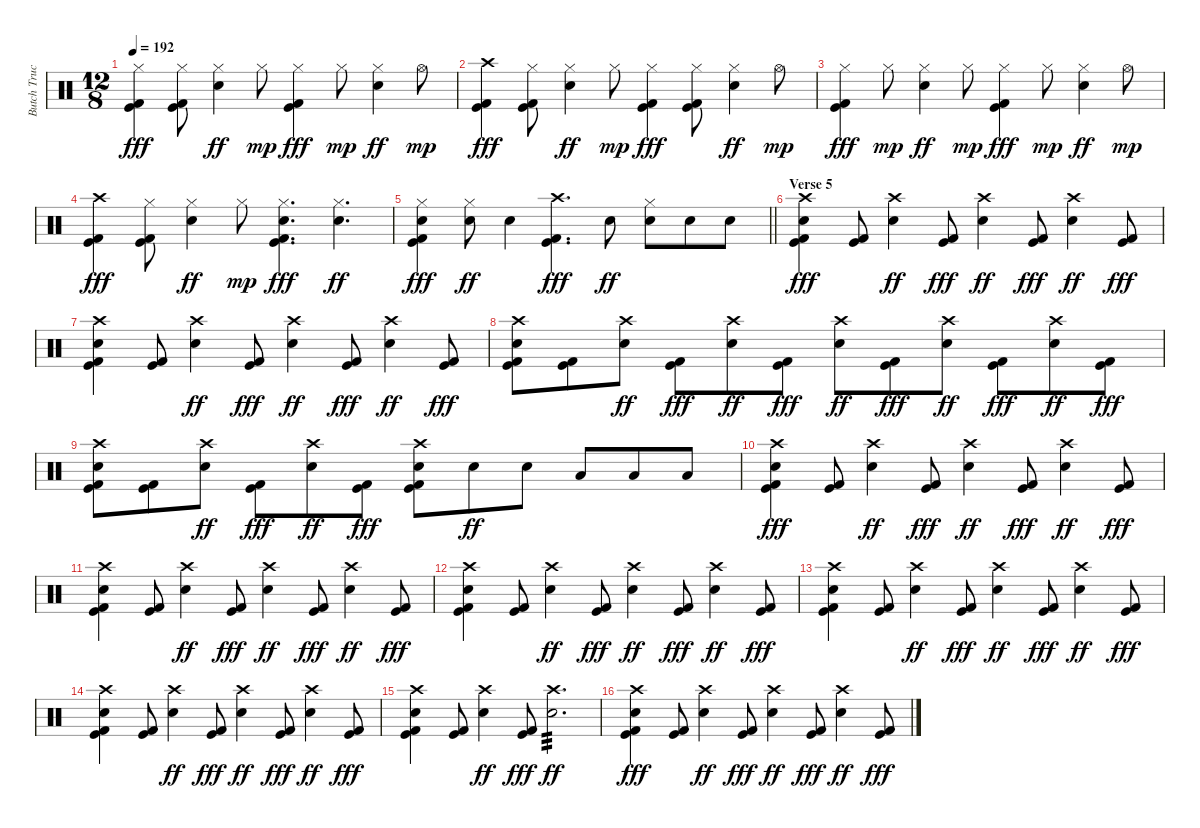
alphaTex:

\track ("Butch Trucks, Jaimoe - Drums" "Butch Truc") {instrument percussion}
\staff {score}
\articulation defaults
\ts (12 8)
\tempo 192
\clef neutral
\ks c
("Hi-Hat (closed)" "Kick (hit)" "Kick (hit) 2").4{dy fff} ("Hi-Hat (closed)" "Kick (hit)" "Kick (hit) 2").8 ("Hi-Hat (closed)" "Snare (hit) 2").4{dy ff} "Hi-Hat (closed)".8{dy mp} ("Hi-Hat (closed)" "Kick (hit)" "Kick (hit) 2").4{dy fff} "Hi-Hat (closed)".8{dy mp} ("Hi-Hat (closed)" "Snare (hit) 2").4{dy ff} "Hi-Hat (open)".8{dy mp} |
("Crash high (hit)" "Kick (hit)" "Kick (hit) 2").4{dy fff} ("Hi-Hat (closed)" "Kick (hit)" "Kick (hit) 2").8 ("Hi-Hat (closed)" "Snare (hit) 2").4{dy ff} "Hi-Hat (closed)".8{dy mp} ("Hi-Hat (closed)" "Kick (hit)" "Kick (hit) 2").4{dy fff} ("Hi-Hat (closed)" "Kick (hit)" "Kick (hit) 2").8 ("Hi-Hat (closed)" "Snare (hit) 2").4{dy ff} "Hi-Hat (open)".8{dy mp} |
("Hi-Hat (closed)" "Kick (hit)" "Kick (hit) 2").4{dy fff} "Hi-Hat (closed)".8{dy mp} ("Hi-Hat (closed)" "Snare (hit) 2").4{dy ff} "Hi-Hat (closed)".8{dy mp} ("Hi-Hat (closed)" "Kick (hit)" "Kick (hit) 2").4{dy fff} "Hi-Hat (closed)".8{dy mp} ("Hi-Hat (closed)" "Snare (hit) 2").4{dy ff} "Hi-Hat (open)".8{dy mp} |
("Crash high (hit)" "Kick (hit)" "Kick (hit) 2").4{dy fff} ("Hi-Hat (closed)" "Kick (hit)" "Kick (hit) 2").8 ("Hi-Hat (closed)" "Snare (hit) 2").4{dy ff} "Hi-Hat (closed)".8{dy mp} ("Hi-Hat (closed)" "Snare (hit) 2" "Kick (hit)" "Kick (hit) 2").4{d dy fff} ("Hi-Hat (closed)" "Snare (hit) 2").4{d dy ff} |
\barLineRight lightlight
("Hi-Hat (closed)" "Snare (hit) 2" "Kick (hit)" "Kick (hit) 2").4{dy fff} ("Hi-Hat (closed)" "Snare (hit) 2").8{dy ff} "Snare (hit) 2".4 ("Crash high (hit)" "Kick (hit)" "Kick (hit) 2").4{d dy fff} "Snare (hit) 2".8{dy ff} ("Hi-Hat (closed)" "Snare (hit) 2").8 "Snare (hit) 2".8 "Snare (hit) 2".8 |
\section ("" "Verse 5")
("Crash high (hit)" "Snare (hit) 2" "Kick (hit)" "Kick (hit) 2").4{dy fff} ("Kick (hit)" "Kick (hit) 2").8 ("Crash high (hit)" "Snare (hit) 2").4{dy ff} ("Kick (hit)" "Kick (hit) 2").8{dy fff} ("Crash high (hit)" "Snare (hit) 2").4{dy ff} ("Kick (hit)" "Kick (hit) 2").8{dy fff} ("Crash high (hit)" "Snare (hit) 2").4{dy ff} ("Kick (hit)" "Kick (hit) 2").8{dy fff} |
("Crash high (hit)" "Snare (hit) 2" "Kick (hit)" "Kick (hit) 2").4 ("Kick (hit)" "Kick (hit) 2").8 ("Crash high (hit)" "Snare (hit) 2").4{dy ff} ("Kick (hit)" "Kick (hit) 2").8{dy fff} ("Crash high (hit)" "Snare (hit) 2").4{dy ff} ("Kick (hit)" "Kick (hit) 2").8{dy fff} ("Crash high (hit)" "Snare (hit) 2").4{dy ff} ("Kick (hit)" "Kick (hit) 2").8{dy fff} |
("Crash high (hit)" "Snare (hit) 2" "Kick (hit)" "Kick (hit) 2").8 ("Kick (hit)" "Kick (hit) 2").8 ("Crash high (hit)" "Snare (hit) 2").8{dy ff} ("Kick (hit)" "Kick (hit) 2").8{dy fff} ("Crash high (hit)" "Snare (hit) 2").8{dy ff} ("Kick (hit)" "Kick (hit) 2").8{dy fff} ("Crash high (hit)" "Snare (hit) 2").8{dy ff} ("Kick (hit)" "Kick (hit) 2").8{dy fff} ("Crash high (hit)" "Snare (hit) 2").8{dy ff} ("Kick (hit)" "Kick (hit) 2").8{dy fff} ("Crash high (hit)" "Snare (hit) 2").8{dy ff} ("Kick (hit)" "Kick (hit) 2").8{dy fff} |
("Crash high (hit)" "Snare (hit) 2" "Kick (hit)" "Kick (hit) 2").8 ("Kick (hit)" "Kick (hit) 2").8 ("Crash high (hit)" "Snare (hit) 2").8{dy ff} ("Kick (hit)" "Kick (hit) 2").8{dy fff} ("Crash high (hit)" "Snare (hit) 2").8{dy ff} ("Kick (hit)" "Kick (hit) 2").8{dy fff} ("Crash high (hit)" "Snare (hit) 2" "Kick (hit)" "Kick (hit) 2").8 "Snare (hit) 2".8{dy ff} "Snare (hit) 2".8 "Low Tom (hit)".8 "Low Tom (hit)".8 "Low Floor Tom (hit)".8 |
("Crash high (hit)" "Snare (hit) 2" "Kick (hit)" "Kick (hit) 2").4{dy fff} ("Kick (hit)" "Kick (hit) 2").8 ("Crash high (hit)" "Snare (hit) 2").4{dy ff} ("Kick (hit)" "Kick (hit) 2").8{dy fff} ("Crash high (hit)" "Snare (hit) 2").4{dy ff} ("Kick (hit)" "Kick (hit) 2").8{dy fff} ("Crash high (hit)" "Snare (hit) 2").4{dy ff} ("Kick (hit)" "Kick (hit) 2").8{dy fff} |
("Crash high (hit)" "Snare (hit) 2" "Kick (hit)" "Kick (hit) 2").4 ("Kick (hit)" "Kick (hit) 2").8 ("Crash high (hit)" "Snare (hit) 2").4{dy ff} ("Kick (hit)" "Kick (hit) 2").8{dy fff} ("Crash high (hit)" "Snare (hit) 2").4{dy ff} ("Kick (hit)" "Kick (hit) 2").8{dy fff} ("Crash high (hit)" "Snare (hit) 2").4{dy ff} ("Kick (hit)" "Kick (hit) 2").8{dy fff} |
("Crash high (hit)" "Snare (hit) 2" "Kick (hit)" "Kick (hit) 2").4 ("Kick (hit)" "Kick (hit) 2").8 ("Crash high (hit)" "Snare (hit) 2").4{dy ff} ("Kick (hit)" "Kick (hit) 2").8{dy fff} ("Crash high (hit)" "Snare (hit) 2").4{dy ff} ("Kick (hit)" "Kick (hit) 2").8{dy fff} ("Crash high (hit)" "Snare (hit) 2").4{dy ff} ("Kick (hit)" "Kick (hit) 2").8{dy fff} |
("Crash high (hit)" "Snare (hit) 2" "Kick (hit)" "Kick (hit) 2").4 ("Kick (hit)" "Kick (hit) 2").8 ("Crash high (hit)" "Snare (hit) 2").4{dy ff} ("Kick (hit)" "Kick (hit) 2").8{dy fff} ("Crash high (hit)" "Snare (hit) 2").4{dy ff} ("Kick (hit)" "Kick (hit) 2").8{dy fff} ("Crash high (hit)" "Snare (hit) 2").4{dy ff} ("Kick (hit)" "Kick (hit) 2").8{dy fff} |
("Crash high (hit)" "Snare (hit) 2" "Kick (hit)" "Kick (hit) 2").4 ("Kick (hit)" "Kick (hit) 2").8 ("Crash high (hit)" "Snare (hit) 2").4{dy ff} ("Kick (hit)" "Kick (hit) 2").8{dy fff} ("Crash high (hit)" "Snare (hit) 2").4{dy ff} ("Kick (hit)" "Kick (hit) 2").8{dy fff} ("Crash high (hit)" "Snare (hit) 2").4{dy ff} ("Kick (hit)" "Kick (hit) 2").8{dy fff} |
("Crash high (hit)" "Snare (hit) 2" "Kick (hit)" "Kick (hit) 2").4 ("Kick (hit)" "Kick (hit) 2").8 ("Crash high (hit)" "Snare (hit) 2").4{dy ff} ("Kick (hit)" "Kick (hit) 2").8{dy fff} ("Crash high (hit)" "Snare (hit) 2").2{d tp 3 dy ff} |
("Crash high (hit)" "Snare (hit) 2" "Kick (hit)" "Kick (hit) 2").4{dy fff} ("Kick (hit)" "Kick (hit) 2").8 ("Crash high (hit)" "Snare (hit) 2").4{dy ff} ("Kick (hit)" "Kick (hit) 2").8{dy fff} ("Crash high (hit)" "Snare (hit) 2").4{dy ff} ("Kick (hit)" "Kick (hit) 2").8{dy fff} ("Crash high (hit)" "Snare (hit) 2").4{dy ff} ("Kick (hit)" "Kick (hit) 2").8{dy fff}
